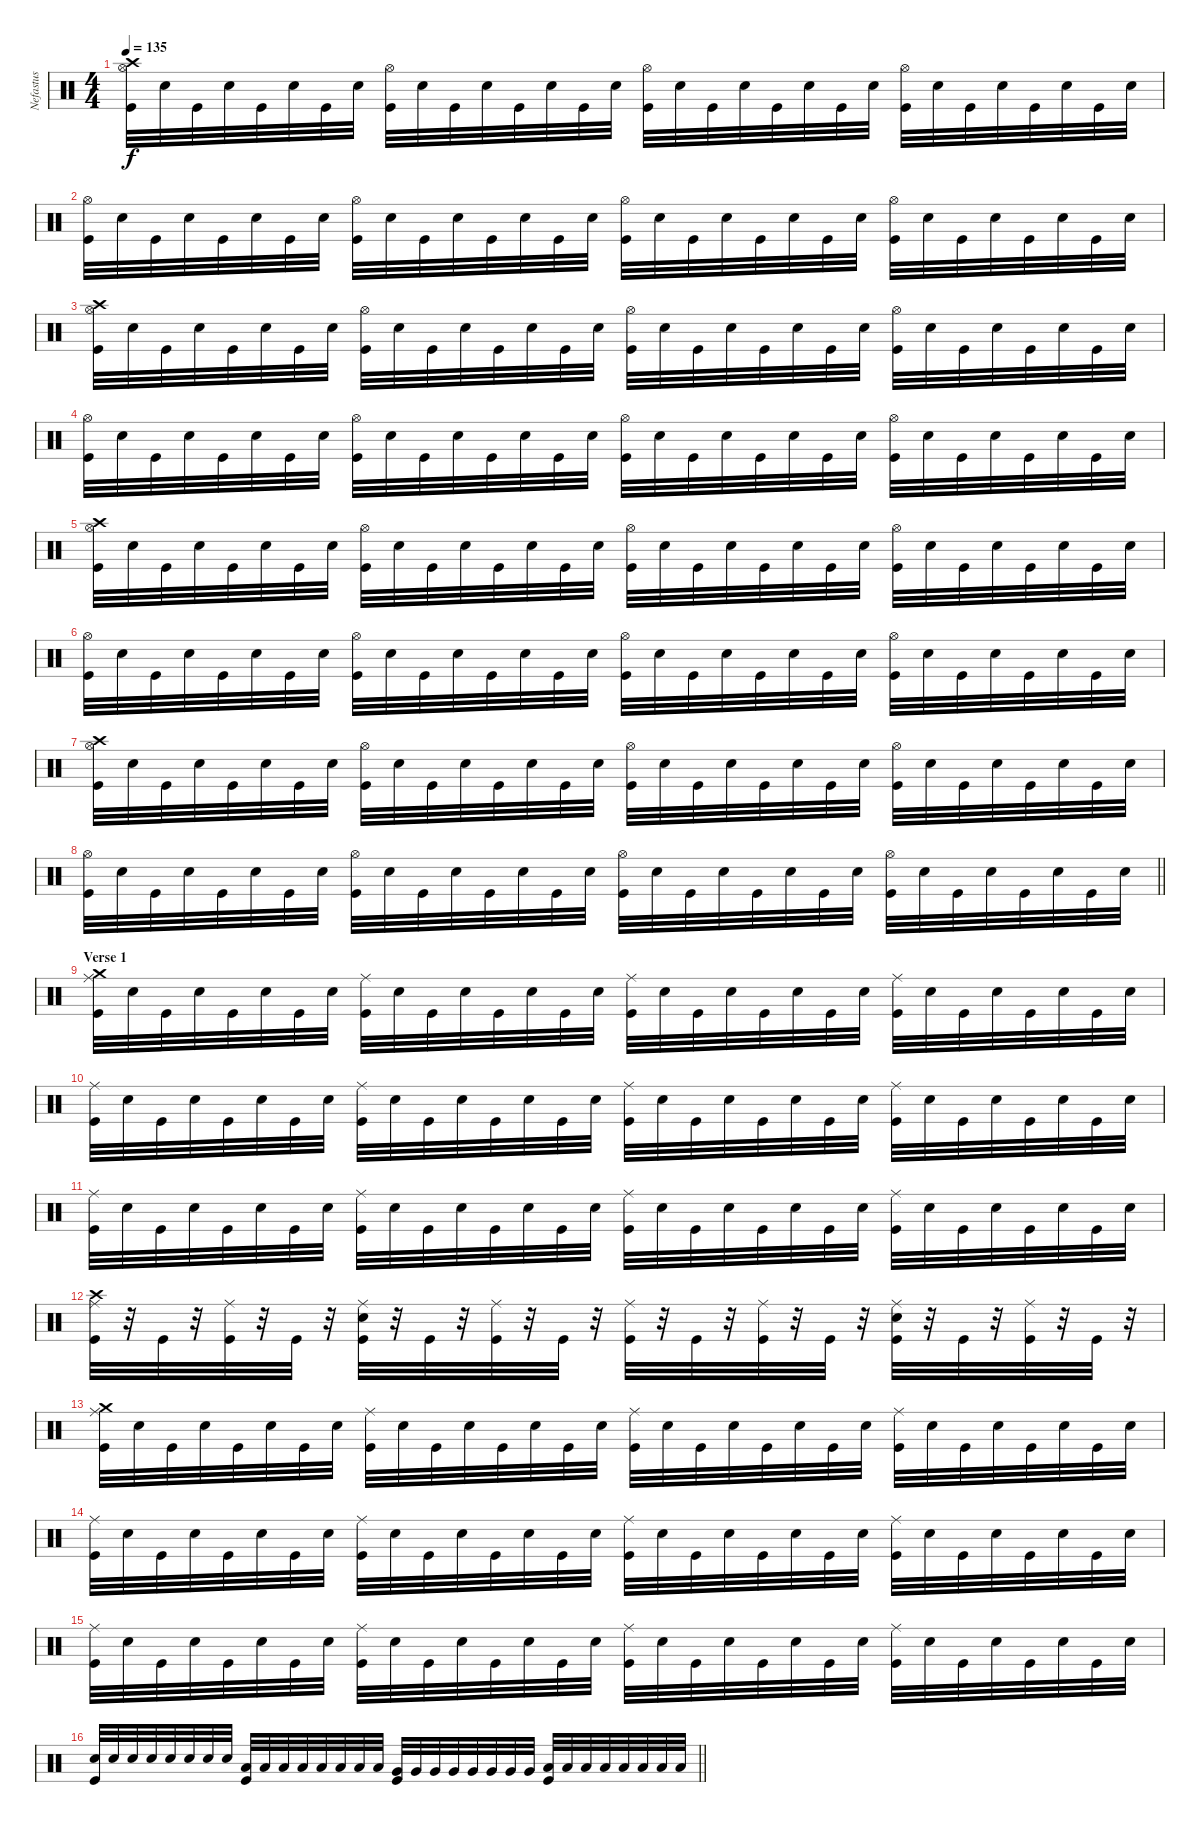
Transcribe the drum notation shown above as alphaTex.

\track ("Nefastus" "Nefastus") {instrument percussion}
\staff {score}
\articulation defaults
\ts (4 4)
\tempo 135
\clef neutral
\ks c
("Crash high (hit)" "Hi-Hat (open)" "Kick (hit)").32{dy f} "Electric Snare (hit)".32 "Kick (hit)".32 "Electric Snare (hit)".32 "Kick (hit)".32 "Electric Snare (hit)".32 "Kick (hit)".32 "Electric Snare (hit)".32 ("Hi-Hat (open)" "Kick (hit)").32 "Electric Snare (hit)".32 "Kick (hit)".32 "Electric Snare (hit)".32 "Kick (hit)".32 "Electric Snare (hit)".32 "Kick (hit)".32 "Electric Snare (hit)".32 ("Hi-Hat (open)" "Kick (hit)").32 "Electric Snare (hit)".32 "Kick (hit)".32 "Electric Snare (hit)".32 "Kick (hit)".32 "Electric Snare (hit)".32 "Kick (hit)".32 "Electric Snare (hit)".32 ("Hi-Hat (open)" "Kick (hit)").32 "Electric Snare (hit)".32 "Kick (hit)".32 "Electric Snare (hit)".32 "Kick (hit)".32 "Electric Snare (hit)".32 "Kick (hit)".32 "Electric Snare (hit)".32 |
("Hi-Hat (open)" "Kick (hit)").32 "Electric Snare (hit)".32 "Kick (hit)".32 "Electric Snare (hit)".32 "Kick (hit)".32 "Electric Snare (hit)".32 "Kick (hit)".32 "Electric Snare (hit)".32 ("Hi-Hat (open)" "Kick (hit)").32 "Electric Snare (hit)".32 "Kick (hit)".32 "Electric Snare (hit)".32 "Kick (hit)".32 "Electric Snare (hit)".32 "Kick (hit)".32 "Electric Snare (hit)".32 ("Hi-Hat (open)" "Kick (hit)").32 "Electric Snare (hit)".32 "Kick (hit)".32 "Electric Snare (hit)".32 "Kick (hit)".32 "Electric Snare (hit)".32 "Kick (hit)".32 "Electric Snare (hit)".32 ("Hi-Hat (open)" "Kick (hit)").32 "Electric Snare (hit)".32 "Kick (hit)".32 "Electric Snare (hit)".32 "Kick (hit)".32 "Electric Snare (hit)".32 "Kick (hit)".32 "Electric Snare (hit)".32 |
("Crash high (hit)" "Hi-Hat (open)" "Kick (hit)").32 "Electric Snare (hit)".32 "Kick (hit)".32 "Electric Snare (hit)".32 "Kick (hit)".32 "Electric Snare (hit)".32 "Kick (hit)".32 "Electric Snare (hit)".32 ("Hi-Hat (open)" "Kick (hit)").32 "Electric Snare (hit)".32 "Kick (hit)".32 "Electric Snare (hit)".32 "Kick (hit)".32 "Electric Snare (hit)".32 "Kick (hit)".32 "Electric Snare (hit)".32 ("Hi-Hat (open)" "Kick (hit)").32 "Electric Snare (hit)".32 "Kick (hit)".32 "Electric Snare (hit)".32 "Kick (hit)".32 "Electric Snare (hit)".32 "Kick (hit)".32 "Electric Snare (hit)".32 ("Hi-Hat (open)" "Kick (hit)").32 "Electric Snare (hit)".32 "Kick (hit)".32 "Electric Snare (hit)".32 "Kick (hit)".32 "Electric Snare (hit)".32 "Kick (hit)".32 "Electric Snare (hit)".32 |
("Hi-Hat (open)" "Kick (hit)").32 "Electric Snare (hit)".32 "Kick (hit)".32 "Electric Snare (hit)".32 "Kick (hit)".32 "Electric Snare (hit)".32 "Kick (hit)".32 "Electric Snare (hit)".32 ("Hi-Hat (open)" "Kick (hit)").32 "Electric Snare (hit)".32 "Kick (hit)".32 "Electric Snare (hit)".32 "Kick (hit)".32 "Electric Snare (hit)".32 "Kick (hit)".32 "Electric Snare (hit)".32 ("Hi-Hat (open)" "Kick (hit)").32 "Electric Snare (hit)".32 "Kick (hit)".32 "Electric Snare (hit)".32 "Kick (hit)".32 "Electric Snare (hit)".32 "Kick (hit)".32 "Electric Snare (hit)".32 ("Hi-Hat (open)" "Kick (hit)").32 "Electric Snare (hit)".32 "Kick (hit)".32 "Electric Snare (hit)".32 "Kick (hit)".32 "Electric Snare (hit)".32 "Kick (hit)".32 "Electric Snare (hit)".32 |
("Crash high (hit)" "Hi-Hat (open)" "Kick (hit)").32 "Electric Snare (hit)".32 "Kick (hit)".32 "Electric Snare (hit)".32 "Kick (hit)".32 "Electric Snare (hit)".32 "Kick (hit)".32 "Electric Snare (hit)".32 ("Hi-Hat (open)" "Kick (hit)").32 "Electric Snare (hit)".32 "Kick (hit)".32 "Electric Snare (hit)".32 "Kick (hit)".32 "Electric Snare (hit)".32 "Kick (hit)".32 "Electric Snare (hit)".32 ("Hi-Hat (open)" "Kick (hit)").32 "Electric Snare (hit)".32 "Kick (hit)".32 "Electric Snare (hit)".32 "Kick (hit)".32 "Electric Snare (hit)".32 "Kick (hit)".32 "Electric Snare (hit)".32 ("Hi-Hat (open)" "Kick (hit)").32 "Electric Snare (hit)".32 "Kick (hit)".32 "Electric Snare (hit)".32 "Kick (hit)".32 "Electric Snare (hit)".32 "Kick (hit)".32 "Electric Snare (hit)".32 |
("Hi-Hat (open)" "Kick (hit)").32 "Electric Snare (hit)".32 "Kick (hit)".32 "Electric Snare (hit)".32 "Kick (hit)".32 "Electric Snare (hit)".32 "Kick (hit)".32 "Electric Snare (hit)".32 ("Hi-Hat (open)" "Kick (hit)").32 "Electric Snare (hit)".32 "Kick (hit)".32 "Electric Snare (hit)".32 "Kick (hit)".32 "Electric Snare (hit)".32 "Kick (hit)".32 "Electric Snare (hit)".32 ("Hi-Hat (open)" "Kick (hit)").32 "Electric Snare (hit)".32 "Kick (hit)".32 "Electric Snare (hit)".32 "Kick (hit)".32 "Electric Snare (hit)".32 "Kick (hit)".32 "Electric Snare (hit)".32 ("Hi-Hat (open)" "Kick (hit)").32 "Electric Snare (hit)".32 "Kick (hit)".32 "Electric Snare (hit)".32 "Kick (hit)".32 "Electric Snare (hit)".32 "Kick (hit)".32 "Electric Snare (hit)".32 |
("Crash high (hit)" "Hi-Hat (open)" "Kick (hit)").32 "Electric Snare (hit)".32 "Kick (hit)".32 "Electric Snare (hit)".32 "Kick (hit)".32 "Electric Snare (hit)".32 "Kick (hit)".32 "Electric Snare (hit)".32 ("Hi-Hat (open)" "Kick (hit)").32 "Electric Snare (hit)".32 "Kick (hit)".32 "Electric Snare (hit)".32 "Kick (hit)".32 "Electric Snare (hit)".32 "Kick (hit)".32 "Electric Snare (hit)".32 ("Hi-Hat (open)" "Kick (hit)").32 "Electric Snare (hit)".32 "Kick (hit)".32 "Electric Snare (hit)".32 "Kick (hit)".32 "Electric Snare (hit)".32 "Kick (hit)".32 "Electric Snare (hit)".32 ("Hi-Hat (open)" "Kick (hit)").32 "Electric Snare (hit)".32 "Kick (hit)".32 "Electric Snare (hit)".32 "Kick (hit)".32 "Electric Snare (hit)".32 "Kick (hit)".32 "Electric Snare (hit)".32 |
\barLineRight lightlight
("Hi-Hat (open)" "Kick (hit)").32 "Electric Snare (hit)".32 "Kick (hit)".32 "Electric Snare (hit)".32 "Kick (hit)".32 "Electric Snare (hit)".32 "Kick (hit)".32 "Electric Snare (hit)".32 ("Hi-Hat (open)" "Kick (hit)").32 "Electric Snare (hit)".32 "Kick (hit)".32 "Electric Snare (hit)".32 "Kick (hit)".32 "Electric Snare (hit)".32 "Kick (hit)".32 "Electric Snare (hit)".32 ("Hi-Hat (open)" "Kick (hit)").32 "Electric Snare (hit)".32 "Kick (hit)".32 "Electric Snare (hit)".32 "Kick (hit)".32 "Electric Snare (hit)".32 "Kick (hit)".32 "Electric Snare (hit)".32 ("Hi-Hat (open)" "Kick (hit)").32 "Electric Snare (hit)".32 "Kick (hit)".32 "Electric Snare (hit)".32 "Kick (hit)".32 "Electric Snare (hit)".32 "Kick (hit)".32 "Electric Snare (hit)".32 |
\section ("" "Verse 1")
("Crash medium (hit)" "Ride (middle)" "Kick (hit)").32 "Electric Snare (hit)".32 "Kick (hit)".32 "Electric Snare (hit)".32 "Kick (hit)".32 "Electric Snare (hit)".32 "Kick (hit)".32 "Electric Snare (hit)".32 ("Ride (middle)" "Kick (hit)").32 "Electric Snare (hit)".32 "Kick (hit)".32 "Electric Snare (hit)".32 "Kick (hit)".32 "Electric Snare (hit)".32 "Kick (hit)".32 "Electric Snare (hit)".32 ("Ride (middle)" "Kick (hit)").32 "Electric Snare (hit)".32 "Kick (hit)".32 "Electric Snare (hit)".32 "Kick (hit)".32 "Electric Snare (hit)".32 "Kick (hit)".32 "Electric Snare (hit)".32 ("Ride (middle)" "Kick (hit)").32 "Electric Snare (hit)".32 "Kick (hit)".32 "Electric Snare (hit)".32 "Kick (hit)".32 "Electric Snare (hit)".32 "Kick (hit)".32 "Electric Snare (hit)".32 |
("Ride (middle)" "Kick (hit)").32 "Electric Snare (hit)".32 "Kick (hit)".32 "Electric Snare (hit)".32 "Kick (hit)".32 "Electric Snare (hit)".32 "Kick (hit)".32 "Electric Snare (hit)".32 ("Ride (middle)" "Kick (hit)").32 "Electric Snare (hit)".32 "Kick (hit)".32 "Electric Snare (hit)".32 "Kick (hit)".32 "Electric Snare (hit)".32 "Kick (hit)".32 "Electric Snare (hit)".32 ("Ride (middle)" "Kick (hit)").32 "Electric Snare (hit)".32 "Kick (hit)".32 "Electric Snare (hit)".32 "Kick (hit)".32 "Electric Snare (hit)".32 "Kick (hit)".32 "Electric Snare (hit)".32 ("Ride (middle)" "Kick (hit)").32 "Electric Snare (hit)".32 "Kick (hit)".32 "Electric Snare (hit)".32 "Kick (hit)".32 "Electric Snare (hit)".32 "Kick (hit)".32 "Electric Snare (hit)".32 |
("Ride (middle)" "Kick (hit)").32 "Electric Snare (hit)".32 "Kick (hit)".32 "Electric Snare (hit)".32 "Kick (hit)".32 "Electric Snare (hit)".32 "Kick (hit)".32 "Electric Snare (hit)".32 ("Ride (middle)" "Kick (hit)").32 "Electric Snare (hit)".32 "Kick (hit)".32 "Electric Snare (hit)".32 "Kick (hit)".32 "Electric Snare (hit)".32 "Kick (hit)".32 "Electric Snare (hit)".32 ("Ride (middle)" "Kick (hit)").32 "Electric Snare (hit)".32 "Kick (hit)".32 "Electric Snare (hit)".32 "Kick (hit)".32 "Electric Snare (hit)".32 "Kick (hit)".32 "Electric Snare (hit)".32 ("Ride (middle)" "Kick (hit)").32 "Electric Snare (hit)".32 "Kick (hit)".32 "Electric Snare (hit)".32 "Kick (hit)".32 "Electric Snare (hit)".32 "Kick (hit)".32 "Electric Snare (hit)".32 |
("Crash high (hit)" "Ride (middle)" "Kick (hit)").32 r.32 "Kick (hit)".32 r.32 ("Ride (middle)" "Kick (hit)").32 r.32 "Kick (hit)".32 r.32 ("Electric Snare (hit)" "Ride (middle)" "Kick (hit)").32 r.32 "Kick (hit)".32 r.32 ("Ride (middle)" "Kick (hit)").32 r.32 "Kick (hit)".32 r.32 ("Ride (middle)" "Kick (hit)").32 r.32 "Kick (hit)".32 r.32 ("Ride (middle)" "Kick (hit)").32 r.32 "Kick (hit)".32 r.32 ("Electric Snare (hit)" "Ride (middle)" "Kick (hit)").32 r.32 "Kick (hit)".32 r.32 ("Ride (middle)" "Kick (hit)").32 r.32 "Kick (hit)".32 r.32 |
("Crash medium (hit)" "Ride (middle)" "Kick (hit)").32 "Electric Snare (hit)".32 "Kick (hit)".32 "Electric Snare (hit)".32 "Kick (hit)".32 "Electric Snare (hit)".32 "Kick (hit)".32 "Electric Snare (hit)".32 ("Ride (middle)" "Kick (hit)").32 "Electric Snare (hit)".32 "Kick (hit)".32 "Electric Snare (hit)".32 "Kick (hit)".32 "Electric Snare (hit)".32 "Kick (hit)".32 "Electric Snare (hit)".32 ("Ride (middle)" "Kick (hit)").32 "Electric Snare (hit)".32 "Kick (hit)".32 "Electric Snare (hit)".32 "Kick (hit)".32 "Electric Snare (hit)".32 "Kick (hit)".32 "Electric Snare (hit)".32 ("Ride (middle)" "Kick (hit)").32 "Electric Snare (hit)".32 "Kick (hit)".32 "Electric Snare (hit)".32 "Kick (hit)".32 "Electric Snare (hit)".32 "Kick (hit)".32 "Electric Snare (hit)".32 |
("Ride (middle)" "Kick (hit)").32 "Electric Snare (hit)".32 "Kick (hit)".32 "Electric Snare (hit)".32 "Kick (hit)".32 "Electric Snare (hit)".32 "Kick (hit)".32 "Electric Snare (hit)".32 ("Ride (middle)" "Kick (hit)").32 "Electric Snare (hit)".32 "Kick (hit)".32 "Electric Snare (hit)".32 "Kick (hit)".32 "Electric Snare (hit)".32 "Kick (hit)".32 "Electric Snare (hit)".32 ("Ride (middle)" "Kick (hit)").32 "Electric Snare (hit)".32 "Kick (hit)".32 "Electric Snare (hit)".32 "Kick (hit)".32 "Electric Snare (hit)".32 "Kick (hit)".32 "Electric Snare (hit)".32 ("Ride (middle)" "Kick (hit)").32 "Electric Snare (hit)".32 "Kick (hit)".32 "Electric Snare (hit)".32 "Kick (hit)".32 "Electric Snare (hit)".32 "Kick (hit)".32 "Electric Snare (hit)".32 |
("Ride (middle)" "Kick (hit)").32 "Electric Snare (hit)".32 "Kick (hit)".32 "Electric Snare (hit)".32 "Kick (hit)".32 "Electric Snare (hit)".32 "Kick (hit)".32 "Electric Snare (hit)".32 ("Ride (middle)" "Kick (hit)").32 "Electric Snare (hit)".32 "Kick (hit)".32 "Electric Snare (hit)".32 "Kick (hit)".32 "Electric Snare (hit)".32 "Kick (hit)".32 "Electric Snare (hit)".32 ("Ride (middle)" "Kick (hit)").32 "Electric Snare (hit)".32 "Kick (hit)".32 "Electric Snare (hit)".32 "Kick (hit)".32 "Electric Snare (hit)".32 "Kick (hit)".32 "Electric Snare (hit)".32 ("Ride (middle)" "Kick (hit)").32 "Electric Snare (hit)".32 "Kick (hit)".32 "Electric Snare (hit)".32 "Kick (hit)".32 "Electric Snare (hit)".32 "Kick (hit)".32 "Electric Snare (hit)".32 |
\barLineRight lightlight
("Electric Snare (hit)" "Kick (hit)").32 "Electric Snare (hit)".32 "Electric Snare (hit)".32 "Electric Snare (hit)".32 "Electric Snare (hit)".32 "Electric Snare (hit)".32 "Electric Snare (hit)".32 "Electric Snare (hit)".32 ("Low Tom (hit)" "Kick (hit)").32 "Low Tom (hit)".32 "Low Tom (hit)".32 "Low Tom (hit)".32 "Low Tom (hit)".32 "Low Tom (hit)".32 "Low Tom (hit)".32 "Low Tom (hit)".32 ("Very Low Tom (hit)" "Kick (hit)").32 "Very Low Tom (hit)".32 "Very Low Tom (hit)".32 "Very Low Tom (hit)".32 "Very Low Tom (hit)".32 "Very Low Tom (hit)".32 "Very Low Tom (hit)".32 "Very Low Tom (hit)".32 ("Low Floor Tom (hit)" "Kick (hit)").32 "Low Floor Tom (hit)".32 "Low Floor Tom (hit)".32 "Low Floor Tom (hit)".32 "Low Floor Tom (hit)".32 "Low Floor Tom (hit)".32 "Low Floor Tom (hit)".32 "Low Floor Tom (hit)".32
